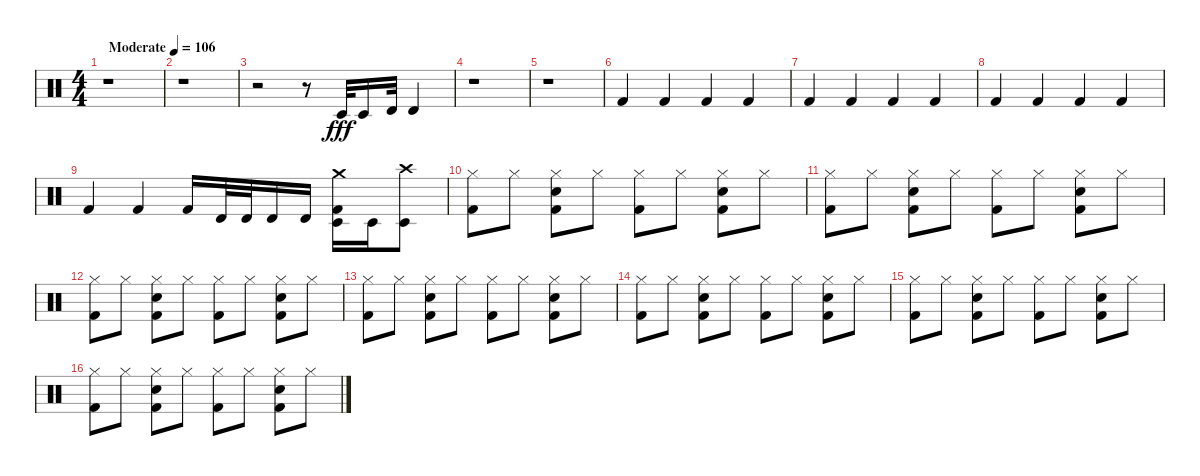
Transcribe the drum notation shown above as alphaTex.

\track "" {instrument percussion}
\staff {score}
\articulation defaults
\ts (4 4)
\tempo (106 "Moderate")
\clef neutral
\ks c
r.1{dy fff} |
r.1 |
r.2 r.8 "Timbale low (hit)".32 "Timbale low (hit)".16 "Timbale high (hit)".32 "Timbale high (hit)".4 |
r.1 |
r.1 |
"Kick (hit) 2".4 "Kick (hit) 2".4 "Kick (hit) 2".4 "Kick (hit) 2".4 |
"Kick (hit) 2".4 "Kick (hit) 2".4 "Kick (hit) 2".4 "Kick (hit) 2".4 |
"Kick (hit) 2".4 "Kick (hit) 2".4 "Kick (hit) 2".4 "Kick (hit) 2".4 |
"Kick (hit) 2".4 "Kick (hit) 2".4 "Kick (hit) 2".16 "Timbale high (hit)".32 "Timbale high (hit)".32 "Timbale high (hit)".16 "Timbale high (hit)".16 ("Kick (hit) 2" "Crash medium (hit)" "Timbale low (hit)").16 "Timbale low (hit)".16 ("Crash high (hit)" "Timbale low (hit)").8 |
("Kick (hit) 2" "Hi-Hat (closed)").8 "Hi-Hat (closed)".8 ("Kick (hit) 2" "Snare (hit) 2" "Hi-Hat (closed)").8 "Hi-Hat (closed)".8 ("Kick (hit) 2" "Hi-Hat (closed)").8 "Hi-Hat (closed)".8 ("Kick (hit) 2" "Snare (hit) 2" "Hi-Hat (closed)").8 "Hi-Hat (closed)".8 |
("Kick (hit) 2" "Hi-Hat (closed)").8 "Hi-Hat (closed)".8 ("Kick (hit) 2" "Snare (hit) 2" "Hi-Hat (closed)").8 "Hi-Hat (closed)".8 ("Kick (hit) 2" "Hi-Hat (closed)").8 "Hi-Hat (closed)".8 ("Kick (hit) 2" "Snare (hit) 2" "Hi-Hat (closed)").8 "Hi-Hat (closed)".8 |
("Kick (hit) 2" "Hi-Hat (closed)").8 "Hi-Hat (closed)".8 ("Kick (hit) 2" "Snare (hit) 2" "Hi-Hat (closed)").8 "Hi-Hat (closed)".8 ("Kick (hit) 2" "Hi-Hat (closed)").8 "Hi-Hat (closed)".8 ("Kick (hit) 2" "Snare (hit) 2" "Hi-Hat (closed)").8 "Hi-Hat (closed)".8 |
("Kick (hit) 2" "Hi-Hat (closed)").8 "Hi-Hat (closed)".8 ("Kick (hit) 2" "Snare (hit) 2" "Hi-Hat (closed)").8 "Hi-Hat (closed)".8 ("Kick (hit) 2" "Hi-Hat (closed)").8 "Hi-Hat (closed)".8 ("Kick (hit) 2" "Snare (hit) 2" "Hi-Hat (closed)").8 "Hi-Hat (closed)".8 |
("Kick (hit) 2" "Hi-Hat (closed)").8 "Hi-Hat (closed)".8 ("Kick (hit) 2" "Snare (hit) 2" "Hi-Hat (closed)").8 "Hi-Hat (closed)".8 ("Kick (hit) 2" "Hi-Hat (closed)").8 "Hi-Hat (closed)".8 ("Kick (hit) 2" "Snare (hit) 2" "Hi-Hat (closed)").8 "Hi-Hat (closed)".8 |
("Kick (hit) 2" "Hi-Hat (closed)").8 "Hi-Hat (closed)".8 ("Kick (hit) 2" "Snare (hit) 2" "Hi-Hat (closed)").8 "Hi-Hat (closed)".8 ("Kick (hit) 2" "Hi-Hat (closed)").8 "Hi-Hat (closed)".8 ("Kick (hit) 2" "Snare (hit) 2" "Hi-Hat (closed)").8 "Hi-Hat (closed)".8 |
("Kick (hit) 2" "Hi-Hat (closed)").8 "Hi-Hat (closed)".8 ("Kick (hit) 2" "Snare (hit) 2" "Hi-Hat (closed)").8 "Hi-Hat (closed)".8 ("Kick (hit) 2" "Hi-Hat (closed)").8 "Hi-Hat (closed)".8 ("Kick (hit) 2" "Snare (hit) 2" "Hi-Hat (closed)").8 "Hi-Hat (closed)".8
